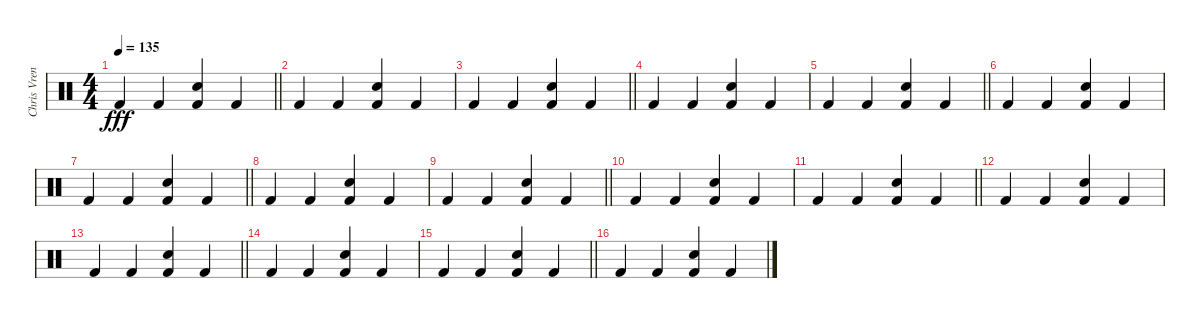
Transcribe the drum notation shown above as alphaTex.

\track ("Chris Vrenna (percussions)" "Chris Vren") {instrument percussion}
\staff {score}
\articulation defaults
\ts (4 4)
\tempo 135
\clef neutral
\barLineRight lightlight
\ks c "Kick (hit) 2".4{dy fff} "Kick (hit) 2".4
("Snare (hit) 2" "Kick (hit) 2").4 "Kick (hit) 2".4 |
"Kick (hit) 2".4 "Kick (hit) 2".4 ("Snare (hit) 2" "Kick (hit) 2").4 "Kick (hit) 2".4 |
\barLineRight lightlight "Kick (hit) 2".4 "Kick (hit) 2".4
("Snare (hit) 2" "Kick (hit) 2").4 "Kick (hit) 2".4 |
"Kick (hit) 2".4 "Kick (hit) 2".4 ("Snare (hit) 2" "Kick (hit) 2").4 "Kick (hit) 2".4 |
\barLineRight lightlight "Kick (hit) 2".4 "Kick (hit) 2".4
("Snare (hit) 2" "Kick (hit) 2").4 "Kick (hit) 2".4 |
"Kick (hit) 2".4 "Kick (hit) 2".4 ("Snare (hit) 2" "Kick (hit) 2").4 "Kick (hit) 2".4 |
\barLineRight lightlight "Kick (hit) 2".4 "Kick (hit) 2".4
("Snare (hit) 2" "Kick (hit) 2").4 "Kick (hit) 2".4 |
"Kick (hit) 2".4 "Kick (hit) 2".4 ("Snare (hit) 2" "Kick (hit) 2").4 "Kick (hit) 2".4 |
\barLineRight lightlight "Kick (hit) 2".4 "Kick (hit) 2".4
("Snare (hit) 2" "Kick (hit) 2").4 "Kick (hit) 2".4 |
"Kick (hit) 2".4 "Kick (hit) 2".4 ("Snare (hit) 2" "Kick (hit) 2").4 "Kick (hit) 2".4 |
\barLineRight lightlight "Kick (hit) 2".4 "Kick (hit) 2".4
("Snare (hit) 2" "Kick (hit) 2").4 "Kick (hit) 2".4 |
"Kick (hit) 2".4 "Kick (hit) 2".4 ("Snare (hit) 2" "Kick (hit) 2").4 "Kick (hit) 2".4 |
\barLineRight lightlight "Kick (hit) 2".4 "Kick (hit) 2".4
("Snare (hit) 2" "Kick (hit) 2").4 "Kick (hit) 2".4 |
"Kick (hit) 2".4 "Kick (hit) 2".4 ("Snare (hit) 2" "Kick (hit) 2").4 "Kick (hit) 2".4 |
\barLineRight lightlight "Kick (hit) 2".4 "Kick (hit) 2".4
("Snare (hit) 2" "Kick (hit) 2").4 "Kick (hit) 2".4 |
"Kick (hit) 2".4 "Kick (hit) 2".4 ("Snare (hit) 2" "Kick (hit) 2").4 "Kick (hit) 2".4
